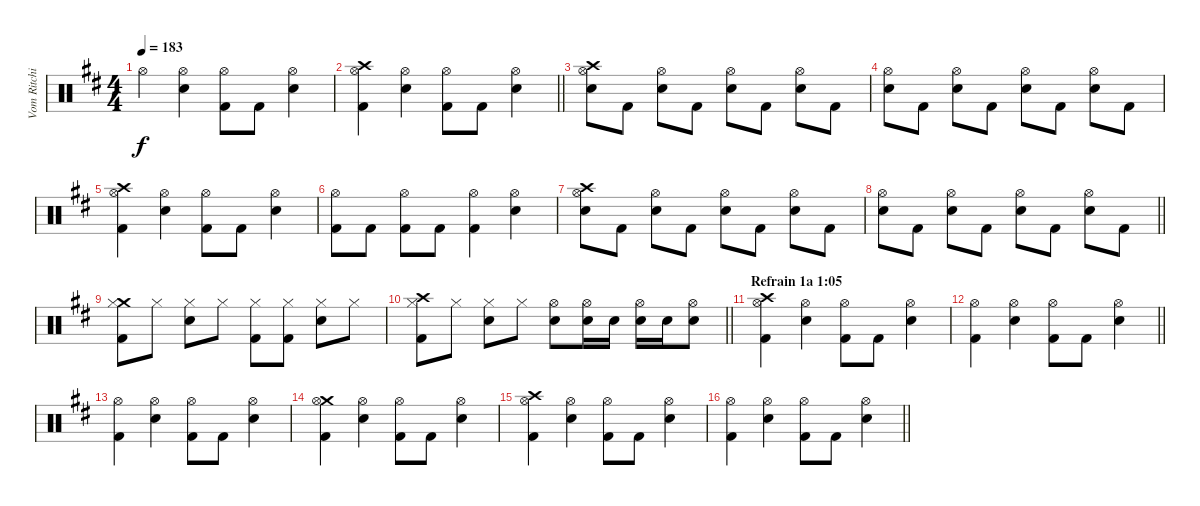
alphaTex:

\track ("Vom Ritchie" "Vom Ritchi") {instrument percussion}
\staff {score}
\articulation defaults
\ts (4 4)
\tempo 183
\clef neutral
\ks d "Hi-Hat (open)".4{dy f}
("Snare (hit) 2" "Hi-Hat (open)").4 ("Hi-Hat (open)" "Kick (hit) 2").8 "Kick (hit) 2".8 ("Snare (hit) 2" "Hi-Hat (open)").4 |
\barLineRight lightlight
("Crash high (hit)" "Hi-Hat (open)" "Kick (hit) 2").4 ("Snare (hit) 2" "Hi-Hat (open)").4 ("Hi-Hat (open)" "Kick (hit) 2").8 "Kick (hit) 2".8 ("Snare (hit) 2" "Hi-Hat (open)").4 |
("Crash high (hit)" "Snare (hit) 2" "Hi-Hat (open)").8 "Kick (hit) 2".8 ("Snare (hit) 2" "Hi-Hat (open)").8 "Kick (hit) 2".8 ("Snare (hit) 2" "Hi-Hat (open)").8 "Kick (hit) 2".8 ("Snare (hit) 2" "Hi-Hat (open)").8 "Kick (hit) 2".8 |
("Snare (hit) 2" "Hi-Hat (open)").8 "Kick (hit) 2".8 ("Snare (hit) 2" "Hi-Hat (open)").8 "Kick (hit) 2".8 ("Snare (hit) 2" "Hi-Hat (open)").8 "Kick (hit) 2".8 ("Snare (hit) 2" "Hi-Hat (open)").8 "Kick (hit) 2".8 |
("Crash high (hit)" "Hi-Hat (open)" "Kick (hit) 2").4 ("Snare (hit) 2" "Hi-Hat (open)").4 ("Hi-Hat (open)" "Kick (hit) 2").8 "Kick (hit) 2".8 ("Snare (hit) 2" "Hi-Hat (open)").4 |
("Hi-Hat (open)" "Kick (hit) 2").8 "Kick (hit) 2".8 ("Hi-Hat (open)" "Kick (hit) 2").8 "Kick (hit) 2".8 ("Hi-Hat (open)" "Kick (hit) 2").4 ("Hi-Hat (open)" "Snare (hit) 2").4 |
("Crash high (hit)" "Snare (hit) 2" "Hi-Hat (open)").8 "Kick (hit) 2".8 ("Snare (hit) 2" "Hi-Hat (open)").8 "Kick (hit) 2".8 ("Snare (hit) 2" "Hi-Hat (open)").8 "Kick (hit) 2".8 ("Snare (hit) 2" "Hi-Hat (open)").8 "Kick (hit) 2".8 |
\barLineRight lightlight
("Snare (hit) 2" "Hi-Hat (open)").8 "Kick (hit) 2".8 ("Snare (hit) 2" "Hi-Hat (open)").8 "Kick (hit) 2".8 ("Snare (hit) 2" "Hi-Hat (open)").8 "Kick (hit) 2".8 ("Snare (hit) 2" "Hi-Hat (open)").8 "Kick (hit) 2".8 |
("Crash medium (hit)" "Hi-Hat (closed)" "Kick (hit) 2").8 "Hi-Hat (closed)".8 ("Snare (hit) 2" "Hi-Hat (closed)").8 "Hi-Hat (closed)".8 ("Hi-Hat (closed)" "Kick (hit) 2").8 ("Hi-Hat (closed)" "Kick (hit) 2").8 ("Snare (hit) 2" "Hi-Hat (closed)").8 "Hi-Hat (closed)".8 |
\barLineRight lightlight
("Crash high (hit)" "Hi-Hat (closed)" "Kick (hit) 2").8 "Hi-Hat (closed)".8 ("Snare (hit) 2" "Hi-Hat (closed)").8 "Hi-Hat (closed)".8 ("Hi-Hat (open)" "Snare (hit) 2").8 ("Hi-Hat (open)" "Snare (hit) 2").16 "Snare (hit) 2".16 ("Hi-Hat (open)" "Snare (hit) 2").16 "Snare (hit) 2".16 ("Hi-Hat (open)" "Snare (hit) 2").8 |
\section ("" "Refrain 1a 1:05")
("Crash high (hit)" "Hi-Hat (open)" "Kick (hit) 2").4 ("Snare (hit) 2" "Hi-Hat (open)").4 ("Hi-Hat (open)" "Kick (hit) 2").8 "Kick (hit) 2".8 ("Snare (hit) 2" "Hi-Hat (open)").4 |
\barLineRight lightlight
("Hi-Hat (open)" "Kick (hit) 2").4 ("Snare (hit) 2" "Hi-Hat (open)").4 ("Hi-Hat (open)" "Kick (hit) 2").8 "Kick (hit) 2".8 ("Snare (hit) 2" "Hi-Hat (open)").4 |
("Hi-Hat (open)" "Kick (hit) 2").4 ("Snare (hit) 2" "Hi-Hat (open)").4 ("Hi-Hat (open)" "Kick (hit) 2").8 "Kick (hit) 2".8 ("Snare (hit) 2" "Hi-Hat (open)").4 |
("Crash medium (hit)" "Hi-Hat (open)" "Kick (hit) 2").4 ("Snare (hit) 2" "Hi-Hat (open)").4 ("Hi-Hat (open)" "Kick (hit) 2").8 "Kick (hit) 2".8 ("Snare (hit) 2" "Hi-Hat (open)").4 |
("Crash high (hit)" "Hi-Hat (open)" "Kick (hit) 2").4 ("Snare (hit) 2" "Hi-Hat (open)").4 ("Hi-Hat (open)" "Kick (hit) 2").8 "Kick (hit) 2".8 ("Snare (hit) 2" "Hi-Hat (open)").4 |
\barLineRight lightlight
("Hi-Hat (open)" "Kick (hit) 2").4 ("Snare (hit) 2" "Hi-Hat (open)").4 ("Hi-Hat (open)" "Kick (hit) 2").8 "Kick (hit) 2".8 ("Snare (hit) 2" "Hi-Hat (open)").4
